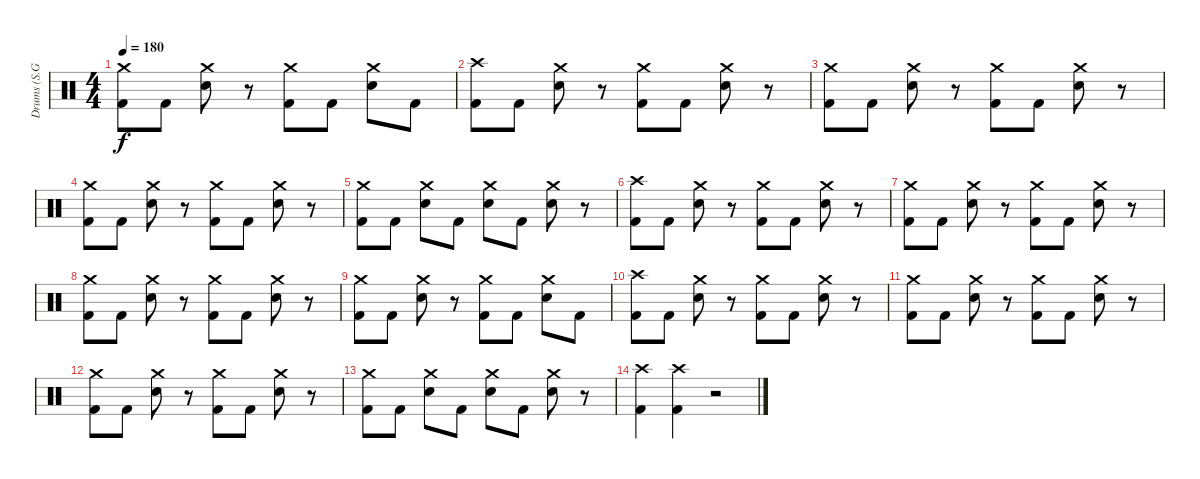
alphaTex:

\track ("Drums (S.G. Yim)" "Drums (S.G") {instrument percussion}
\staff {score}
\articulation defaults
\ts (4 4)
\tempo 180
\clef neutral
\ks c
("Crash medium (hit)" "Kick (hit) 2").8{dy f} "Kick (hit) 2".8 ("Crash medium (hit)" "Snare (hit) 2").8 r.8 ("Crash medium (hit)" "Kick (hit) 2").8 "Kick (hit) 2".8 ("Crash medium (hit)" "Snare (hit) 2").8 "Kick (hit) 2".8 |
("Crash high (hit)" "Kick (hit) 2").8 "Kick (hit) 2".8 ("Crash medium (hit)" "Snare (hit) 2").8 r.8 ("Crash medium (hit)" "Kick (hit) 2").8 "Kick (hit) 2".8 ("Crash medium (hit)" "Snare (hit) 2").8 r.8 |
("Crash medium (hit)" "Kick (hit) 2").8 "Kick (hit) 2".8 ("Crash medium (hit)" "Snare (hit) 2").8 r.8 ("Crash medium (hit)" "Kick (hit) 2").8 "Kick (hit) 2".8 ("Crash medium (hit)" "Snare (hit) 2").8 r.8 |
("Crash medium (hit)" "Kick (hit) 2").8 "Kick (hit) 2".8 ("Crash medium (hit)" "Snare (hit) 2").8 r.8 ("Crash medium (hit)" "Kick (hit) 2").8 "Kick (hit) 2".8 ("Crash medium (hit)" "Snare (hit) 2").8 r.8 |
("Crash medium (hit)" "Kick (hit) 2").8 "Kick (hit) 2".8 ("Crash medium (hit)" "Snare (hit) 2").8 "Kick (hit) 2".8 ("Crash medium (hit)" "Snare (hit) 2").8 "Kick (hit) 2".8 ("Crash medium (hit)" "Snare (hit) 2").8 r.8 |
("Crash high (hit)" "Kick (hit) 2").8 "Kick (hit) 2".8 ("Crash medium (hit)" "Snare (hit) 2").8 r.8 ("Crash medium (hit)" "Kick (hit) 2").8 "Kick (hit) 2".8 ("Crash medium (hit)" "Snare (hit) 2").8 r.8 |
("Crash medium (hit)" "Kick (hit) 2").8 "Kick (hit) 2".8 ("Crash medium (hit)" "Snare (hit) 2").8 r.8 ("Crash medium (hit)" "Kick (hit) 2").8 "Kick (hit) 2".8 ("Crash medium (hit)" "Snare (hit) 2").8 r.8 |
("Crash medium (hit)" "Kick (hit) 2").8 "Kick (hit) 2".8 ("Crash medium (hit)" "Snare (hit) 2").8 r.8 ("Crash medium (hit)" "Kick (hit) 2").8 "Kick (hit) 2".8 ("Crash medium (hit)" "Snare (hit) 2").8 r.8 |
("Crash medium (hit)" "Kick (hit) 2").8 "Kick (hit) 2".8 ("Crash medium (hit)" "Snare (hit) 2").8 r.8 ("Crash medium (hit)" "Kick (hit) 2").8 "Kick (hit) 2".8 ("Crash medium (hit)" "Snare (hit) 2").8 "Kick (hit) 2".8 |
("Crash high (hit)" "Kick (hit) 2").8 "Kick (hit) 2".8 ("Crash medium (hit)" "Snare (hit) 2").8 r.8 ("Crash medium (hit)" "Kick (hit) 2").8 "Kick (hit) 2".8 ("Crash medium (hit)" "Snare (hit) 2").8 r.8 |
("Crash medium (hit)" "Kick (hit) 2").8 "Kick (hit) 2".8 ("Crash medium (hit)" "Snare (hit) 2").8 r.8 ("Crash medium (hit)" "Kick (hit) 2").8 "Kick (hit) 2".8 ("Crash medium (hit)" "Snare (hit) 2").8 r.8 |
("Crash medium (hit)" "Kick (hit) 2").8 "Kick (hit) 2".8 ("Crash medium (hit)" "Snare (hit) 2").8 r.8 ("Crash medium (hit)" "Kick (hit) 2").8 "Kick (hit) 2".8 ("Crash medium (hit)" "Snare (hit) 2").8 r.8 |
("Crash medium (hit)" "Kick (hit) 2").8 "Kick (hit) 2".8 ("Crash medium (hit)" "Snare (hit) 2").8 "Kick (hit) 2".8 ("Crash medium (hit)" "Snare (hit) 2").8 "Kick (hit) 2".8 ("Crash medium (hit)" "Snare (hit) 2").8 r.8 |
("Crash high (hit)" "Kick (hit) 2").4 ("Crash high (hit)" "Kick (hit) 2").4 r.2
